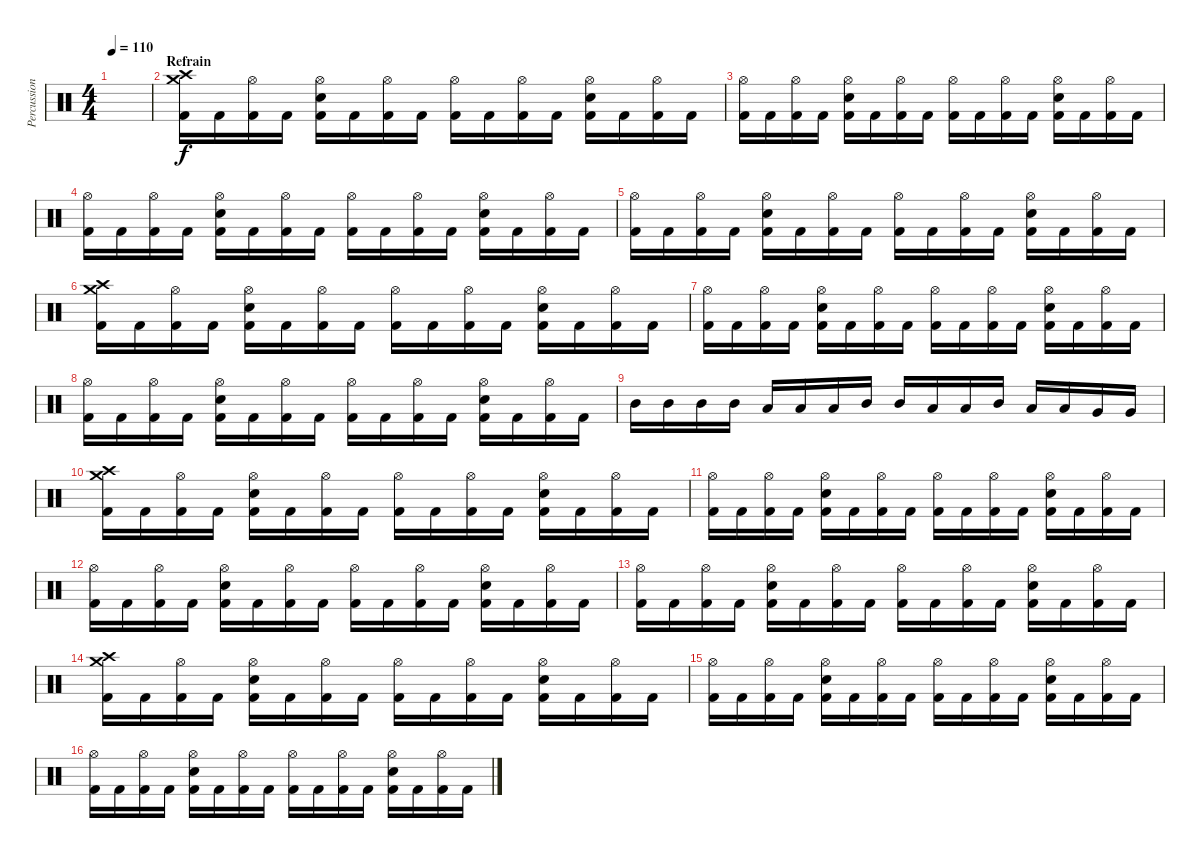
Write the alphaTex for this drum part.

\track ("Percussions" "Percussion") {instrument percussion}
\staff {score}
\articulation defaults
\ts (4 4)
\tempo 110
\clef neutral
\ks c
|
\section ("" "Refrain")
("Crash high (hit)" "Crash medium (hit)" "Kick (hit) 2").16 "Kick (hit) 2".16 ("Hi-Hat (open)" "Kick (hit) 2").16 "Kick (hit) 2".16 ("Hi-Hat (open)" "Electric Snare (hit)" "Kick (hit) 2").16 "Kick (hit) 2".16 ("Hi-Hat (open)" "Kick (hit) 2").16 "Kick (hit) 2".16 ("Hi-Hat (open)" "Kick (hit) 2").16 "Kick (hit) 2".16 ("Hi-Hat (open)" "Kick (hit) 2").16 "Kick (hit) 2".16 ("Hi-Hat (open)" "Electric Snare (hit)" "Kick (hit) 2").16 "Kick (hit) 2".16 ("Hi-Hat (open)" "Kick (hit) 2").16 "Kick (hit) 2".16 |
("Hi-Hat (open)" "Kick (hit) 2").16 "Kick (hit) 2".16 ("Hi-Hat (open)" "Kick (hit) 2").16 "Kick (hit) 2".16 ("Hi-Hat (open)" "Electric Snare (hit)" "Kick (hit) 2").16 "Kick (hit) 2".16 ("Hi-Hat (open)" "Kick (hit) 2").16 "Kick (hit) 2".16 ("Hi-Hat (open)" "Kick (hit) 2").16 "Kick (hit) 2".16 ("Hi-Hat (open)" "Kick (hit) 2").16 "Kick (hit) 2".16 ("Hi-Hat (open)" "Electric Snare (hit)" "Kick (hit) 2").16 "Kick (hit) 2".16 ("Hi-Hat (open)" "Kick (hit) 2").16 "Kick (hit) 2".16 |
("Hi-Hat (open)" "Kick (hit) 2").16 "Kick (hit) 2".16 ("Hi-Hat (open)" "Kick (hit) 2").16 "Kick (hit) 2".16 ("Hi-Hat (open)" "Electric Snare (hit)" "Kick (hit) 2").16 "Kick (hit) 2".16 ("Hi-Hat (open)" "Kick (hit) 2").16 "Kick (hit) 2".16 ("Hi-Hat (open)" "Kick (hit) 2").16 "Kick (hit) 2".16 ("Hi-Hat (open)" "Kick (hit) 2").16 "Kick (hit) 2".16 ("Hi-Hat (open)" "Electric Snare (hit)" "Kick (hit) 2").16 "Kick (hit) 2".16 ("Hi-Hat (open)" "Kick (hit) 2").16 "Kick (hit) 2".16 |
("Hi-Hat (open)" "Kick (hit) 2").16 "Kick (hit) 2".16 ("Hi-Hat (open)" "Kick (hit) 2").16 "Kick (hit) 2".16 ("Hi-Hat (open)" "Electric Snare (hit)" "Kick (hit) 2").16 "Kick (hit) 2".16 ("Hi-Hat (open)" "Kick (hit) 2").16 "Kick (hit) 2".16 ("Hi-Hat (open)" "Kick (hit) 2").16 "Kick (hit) 2".16 ("Hi-Hat (open)" "Kick (hit) 2").16 "Kick (hit) 2".16 ("Hi-Hat (open)" "Electric Snare (hit)" "Kick (hit) 2").16 "Kick (hit) 2".16 ("Hi-Hat (open)" "Kick (hit) 2").16 "Kick (hit) 2".16 |
("Crash high (hit)" "Crash medium (hit)" "Kick (hit) 2").16 "Kick (hit) 2".16 ("Hi-Hat (open)" "Kick (hit) 2").16 "Kick (hit) 2".16 ("Hi-Hat (open)" "Electric Snare (hit)" "Kick (hit) 2").16 "Kick (hit) 2".16 ("Hi-Hat (open)" "Kick (hit) 2").16 "Kick (hit) 2".16 ("Hi-Hat (open)" "Kick (hit) 2").16 "Kick (hit) 2".16 ("Hi-Hat (open)" "Kick (hit) 2").16 "Kick (hit) 2".16 ("Hi-Hat (open)" "Electric Snare (hit)" "Kick (hit) 2").16 "Kick (hit) 2".16 ("Hi-Hat (open)" "Kick (hit) 2").16 "Kick (hit) 2".16 |
("Hi-Hat (open)" "Kick (hit) 2").16 "Kick (hit) 2".16 ("Hi-Hat (open)" "Kick (hit) 2").16 "Kick (hit) 2".16 ("Hi-Hat (open)" "Electric Snare (hit)" "Kick (hit) 2").16 "Kick (hit) 2".16 ("Hi-Hat (open)" "Kick (hit) 2").16 "Kick (hit) 2".16 ("Hi-Hat (open)" "Kick (hit) 2").16 "Kick (hit) 2".16 ("Hi-Hat (open)" "Kick (hit) 2").16 "Kick (hit) 2".16 ("Hi-Hat (open)" "Electric Snare (hit)" "Kick (hit) 2").16 "Kick (hit) 2".16 ("Hi-Hat (open)" "Kick (hit) 2").16 "Kick (hit) 2".16 |
("Hi-Hat (open)" "Kick (hit) 2").16 "Kick (hit) 2".16 ("Hi-Hat (open)" "Kick (hit) 2").16 "Kick (hit) 2".16 ("Hi-Hat (open)" "Electric Snare (hit)" "Kick (hit) 2").16 "Kick (hit) 2".16 ("Hi-Hat (open)" "Kick (hit) 2").16 "Kick (hit) 2".16 ("Hi-Hat (open)" "Kick (hit) 2").16 "Kick (hit) 2".16 ("Hi-Hat (open)" "Kick (hit) 2").16 "Kick (hit) 2".16 ("Hi-Hat (open)" "Electric Snare (hit)" "Kick (hit) 2").16 "Kick (hit) 2".16 ("Hi-Hat (open)" "Kick (hit) 2").16 "Kick (hit) 2".16 |
"Mid Tom (hit)".16 "Mid Tom (hit)".16 "Mid Tom (hit)".16 "Mid Tom (hit)".16 "Low Tom (hit)".16 "Low Tom (hit)".16 "Low Tom (hit)".16 "Mid Tom (hit)".16 "Mid Tom (hit)".16 "Low Tom (hit)".16 "Low Tom (hit)".16 "Mid Tom (hit)".16 "Low Tom (hit)".16 "Low Tom (hit)".16 "Very Low Tom (hit)".16 "Very Low Tom (hit)".16 |
("Crash high (hit)" "Crash medium (hit)" "Kick (hit) 2").16 "Kick (hit) 2".16 ("Hi-Hat (open)" "Kick (hit) 2").16 "Kick (hit) 2".16 ("Hi-Hat (open)" "Electric Snare (hit)" "Kick (hit) 2").16 "Kick (hit) 2".16 ("Hi-Hat (open)" "Kick (hit) 2").16 "Kick (hit) 2".16 ("Hi-Hat (open)" "Kick (hit) 2").16 "Kick (hit) 2".16 ("Hi-Hat (open)" "Kick (hit) 2").16 "Kick (hit) 2".16 ("Hi-Hat (open)" "Electric Snare (hit)" "Kick (hit) 2").16 "Kick (hit) 2".16 ("Hi-Hat (open)" "Kick (hit) 2").16 "Kick (hit) 2".16 |
("Hi-Hat (open)" "Kick (hit) 2").16 "Kick (hit) 2".16 ("Hi-Hat (open)" "Kick (hit) 2").16 "Kick (hit) 2".16 ("Hi-Hat (open)" "Electric Snare (hit)" "Kick (hit) 2").16 "Kick (hit) 2".16 ("Hi-Hat (open)" "Kick (hit) 2").16 "Kick (hit) 2".16 ("Hi-Hat (open)" "Kick (hit) 2").16 "Kick (hit) 2".16 ("Hi-Hat (open)" "Kick (hit) 2").16 "Kick (hit) 2".16 ("Hi-Hat (open)" "Electric Snare (hit)" "Kick (hit) 2").16 "Kick (hit) 2".16 ("Hi-Hat (open)" "Kick (hit) 2").16 "Kick (hit) 2".16 |
("Hi-Hat (open)" "Kick (hit) 2").16 "Kick (hit) 2".16 ("Hi-Hat (open)" "Kick (hit) 2").16 "Kick (hit) 2".16 ("Hi-Hat (open)" "Electric Snare (hit)" "Kick (hit) 2").16 "Kick (hit) 2".16 ("Hi-Hat (open)" "Kick (hit) 2").16 "Kick (hit) 2".16 ("Hi-Hat (open)" "Kick (hit) 2").16 "Kick (hit) 2".16 ("Hi-Hat (open)" "Kick (hit) 2").16 "Kick (hit) 2".16 ("Hi-Hat (open)" "Electric Snare (hit)" "Kick (hit) 2").16 "Kick (hit) 2".16 ("Hi-Hat (open)" "Kick (hit) 2").16 "Kick (hit) 2".16 |
("Hi-Hat (open)" "Kick (hit) 2").16 "Kick (hit) 2".16 ("Hi-Hat (open)" "Kick (hit) 2").16 "Kick (hit) 2".16 ("Hi-Hat (open)" "Electric Snare (hit)" "Kick (hit) 2").16 "Kick (hit) 2".16 ("Hi-Hat (open)" "Kick (hit) 2").16 "Kick (hit) 2".16 ("Hi-Hat (open)" "Kick (hit) 2").16 "Kick (hit) 2".16 ("Hi-Hat (open)" "Kick (hit) 2").16 "Kick (hit) 2".16 ("Hi-Hat (open)" "Electric Snare (hit)" "Kick (hit) 2").16 "Kick (hit) 2".16 ("Hi-Hat (open)" "Kick (hit) 2").16 "Kick (hit) 2".16 |
("Crash high (hit)" "Crash medium (hit)" "Kick (hit) 2").16 "Kick (hit) 2".16 ("Hi-Hat (open)" "Kick (hit) 2").16 "Kick (hit) 2".16 ("Hi-Hat (open)" "Electric Snare (hit)" "Kick (hit) 2").16 "Kick (hit) 2".16 ("Hi-Hat (open)" "Kick (hit) 2").16 "Kick (hit) 2".16 ("Hi-Hat (open)" "Kick (hit) 2").16 "Kick (hit) 2".16 ("Hi-Hat (open)" "Kick (hit) 2").16 "Kick (hit) 2".16 ("Hi-Hat (open)" "Electric Snare (hit)" "Kick (hit) 2").16 "Kick (hit) 2".16 ("Hi-Hat (open)" "Kick (hit) 2").16 "Kick (hit) 2".16 |
("Hi-Hat (open)" "Kick (hit) 2").16 "Kick (hit) 2".16 ("Hi-Hat (open)" "Kick (hit) 2").16 "Kick (hit) 2".16 ("Hi-Hat (open)" "Electric Snare (hit)" "Kick (hit) 2").16 "Kick (hit) 2".16 ("Hi-Hat (open)" "Kick (hit) 2").16 "Kick (hit) 2".16 ("Hi-Hat (open)" "Kick (hit) 2").16 "Kick (hit) 2".16 ("Hi-Hat (open)" "Kick (hit) 2").16 "Kick (hit) 2".16 ("Hi-Hat (open)" "Electric Snare (hit)" "Kick (hit) 2").16 "Kick (hit) 2".16 ("Hi-Hat (open)" "Kick (hit) 2").16 "Kick (hit) 2".16 |
("Hi-Hat (open)" "Kick (hit) 2").16 "Kick (hit) 2".16 ("Hi-Hat (open)" "Kick (hit) 2").16 "Kick (hit) 2".16 ("Hi-Hat (open)" "Electric Snare (hit)" "Kick (hit) 2").16 "Kick (hit) 2".16 ("Hi-Hat (open)" "Kick (hit) 2").16 "Kick (hit) 2".16 ("Hi-Hat (open)" "Kick (hit) 2").16 "Kick (hit) 2".16 ("Hi-Hat (open)" "Kick (hit) 2").16 "Kick (hit) 2".16 ("Hi-Hat (open)" "Electric Snare (hit)" "Kick (hit) 2").16 "Kick (hit) 2".16 ("Hi-Hat (open)" "Kick (hit) 2").16 "Kick (hit) 2".16
